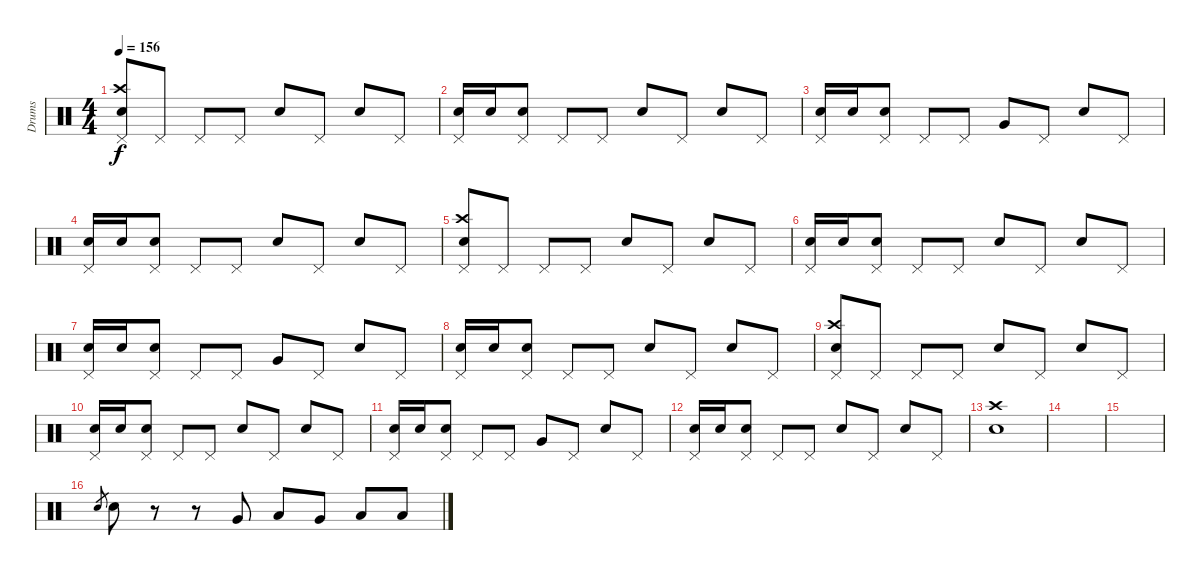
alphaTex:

\track ("Drums" "Drums") {instrument percussion}
\staff {score}
\articulation defaults
\ts (4 4)
\tempo 156
\clef neutral
\ks c
("Electric Snare (hit)" "Crash high (hit)" "Pedal Hi-Hat (hit)").8{dy f volume 13} "Pedal Hi-Hat (hit)".8 "Pedal Hi-Hat (hit)".8 "Pedal Hi-Hat (hit)".8 "Electric Snare (hit)".8 "Pedal Hi-Hat (hit)".8 "Electric Snare (hit)".8 "Pedal Hi-Hat (hit)".8 |
("Electric Snare (hit)" "Pedal Hi-Hat (hit)").16 "Electric Snare (hit)".16 ("Electric Snare (hit)" "Pedal Hi-Hat (hit)").8 "Pedal Hi-Hat (hit)".8 "Pedal Hi-Hat (hit)".8 "Electric Snare (hit)".8 "Pedal Hi-Hat (hit)".8 "Electric Snare (hit)".8 "Pedal Hi-Hat (hit)".8 |
("Electric Snare (hit)" "Pedal Hi-Hat (hit)").16 "Electric Snare (hit)".16 ("Electric Snare (hit)" "Pedal Hi-Hat (hit)").8 "Pedal Hi-Hat (hit)".8 "Pedal Hi-Hat (hit)".8 "Very Low Tom (hit)".8 "Pedal Hi-Hat (hit)".8 "Electric Snare (hit)".8 "Pedal Hi-Hat (hit)".8 |
("Electric Snare (hit)" "Pedal Hi-Hat (hit)").16 "Electric Snare (hit)".16 ("Electric Snare (hit)" "Pedal Hi-Hat (hit)").8 "Pedal Hi-Hat (hit)".8 "Pedal Hi-Hat (hit)".8 "Electric Snare (hit)".8 "Pedal Hi-Hat (hit)".8 "Electric Snare (hit)".8 "Pedal Hi-Hat (hit)".8 |
("Electric Snare (hit)" "Crash high (hit)" "Pedal Hi-Hat (hit)").8{volume 13} "Pedal Hi-Hat (hit)".8 "Pedal Hi-Hat (hit)".8 "Pedal Hi-Hat (hit)".8 "Electric Snare (hit)".8 "Pedal Hi-Hat (hit)".8 "Electric Snare (hit)".8 "Pedal Hi-Hat (hit)".8 |
("Electric Snare (hit)" "Pedal Hi-Hat (hit)").16 "Electric Snare (hit)".16 ("Electric Snare (hit)" "Pedal Hi-Hat (hit)").8 "Pedal Hi-Hat (hit)".8 "Pedal Hi-Hat (hit)".8 "Electric Snare (hit)".8 "Pedal Hi-Hat (hit)".8 "Electric Snare (hit)".8 "Pedal Hi-Hat (hit)".8 |
("Electric Snare (hit)" "Pedal Hi-Hat (hit)").16 "Electric Snare (hit)".16 ("Electric Snare (hit)" "Pedal Hi-Hat (hit)").8 "Pedal Hi-Hat (hit)".8 "Pedal Hi-Hat (hit)".8 "Very Low Tom (hit)".8 "Pedal Hi-Hat (hit)".8 "Electric Snare (hit)".8 "Pedal Hi-Hat (hit)".8 |
("Electric Snare (hit)" "Pedal Hi-Hat (hit)").16 "Electric Snare (hit)".16 ("Electric Snare (hit)" "Pedal Hi-Hat (hit)").8 "Pedal Hi-Hat (hit)".8 "Pedal Hi-Hat (hit)".8 "Electric Snare (hit)".8 "Pedal Hi-Hat (hit)".8 "Electric Snare (hit)".8 "Pedal Hi-Hat (hit)".8 |
("Electric Snare (hit)" "Crash high (hit)" "Pedal Hi-Hat (hit)").8{volume 13} "Pedal Hi-Hat (hit)".8 "Pedal Hi-Hat (hit)".8 "Pedal Hi-Hat (hit)".8 "Electric Snare (hit)".8 "Pedal Hi-Hat (hit)".8 "Electric Snare (hit)".8 "Pedal Hi-Hat (hit)".8 |
("Electric Snare (hit)" "Pedal Hi-Hat (hit)").16 "Electric Snare (hit)".16 ("Electric Snare (hit)" "Pedal Hi-Hat (hit)").8 "Pedal Hi-Hat (hit)".8 "Pedal Hi-Hat (hit)".8 "Electric Snare (hit)".8 "Pedal Hi-Hat (hit)".8 "Electric Snare (hit)".8 "Pedal Hi-Hat (hit)".8 |
("Electric Snare (hit)" "Pedal Hi-Hat (hit)").16 "Electric Snare (hit)".16 ("Electric Snare (hit)" "Pedal Hi-Hat (hit)").8 "Pedal Hi-Hat (hit)".8 "Pedal Hi-Hat (hit)".8 "Very Low Tom (hit)".8 "Pedal Hi-Hat (hit)".8 "Electric Snare (hit)".8 "Pedal Hi-Hat (hit)".8 |
("Electric Snare (hit)" "Pedal Hi-Hat (hit)").16 "Electric Snare (hit)".16 ("Electric Snare (hit)" "Pedal Hi-Hat (hit)").8 "Pedal Hi-Hat (hit)".8 "Pedal Hi-Hat (hit)".8 "Electric Snare (hit)".8 "Pedal Hi-Hat (hit)".8 "Electric Snare (hit)".8 "Pedal Hi-Hat (hit)".8 |
("Electric Snare (hit)" "Crash high (hit)").1 |
|
|
"Electric Snare (hit)".8{gr} "Electric Snare (hit)".8 r.8 r.8 "Very Low Tom (hit)".8 "Low Floor Tom (hit)".8 "Very Low Tom (hit)".8 "Low Floor Tom (hit)".8 "Low Floor Tom (hit)".8
